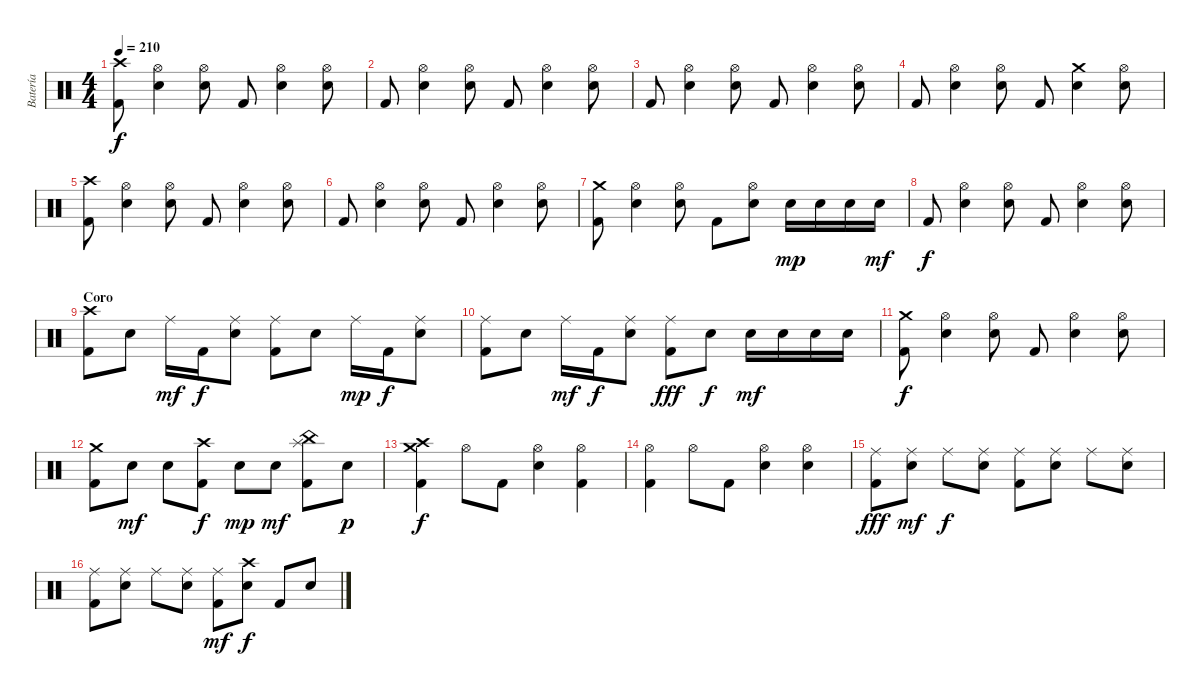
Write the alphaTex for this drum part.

\track ("Batería" "Batería") {instrument percussion}
\staff {score}
\articulation defaults
\ts (4 4)
\tempo 210
\clef neutral
\ks c
("Crash high (hit)" "Kick (hit) 2").8{dy f} ("Hi-Hat (open)" "Electric Snare (hit)").4 ("Hi-Hat (open)" "Electric Snare (hit)").8 "Kick (hit) 2".8 ("Hi-Hat (open)" "Electric Snare (hit)").4 ("Hi-Hat (open)" "Electric Snare (hit)").8 |
"Kick (hit) 2".8 ("Hi-Hat (open)" "Electric Snare (hit)").4 ("Hi-Hat (open)" "Electric Snare (hit)").8 "Kick (hit) 2".8 ("Hi-Hat (open)" "Electric Snare (hit)").4 ("Hi-Hat (open)" "Electric Snare (hit)").8 |
"Kick (hit) 2".8 ("Hi-Hat (open)" "Electric Snare (hit)").4 ("Hi-Hat (open)" "Electric Snare (hit)").8 "Kick (hit) 2".8 ("Hi-Hat (open)" "Electric Snare (hit)").4 ("Hi-Hat (open)" "Electric Snare (hit)").8 |
"Kick (hit) 2".8 ("Hi-Hat (open)" "Electric Snare (hit)").4 ("Hi-Hat (open)" "Electric Snare (hit)").8 "Kick (hit) 2".8 ("Crash medium (hit)" "Electric Snare (hit)").4 ("Hi-Hat (open)" "Electric Snare (hit)").8 |
("Crash high (hit)" "Kick (hit) 2").8 ("Hi-Hat (open)" "Electric Snare (hit)").4 ("Hi-Hat (open)" "Electric Snare (hit)").8 "Kick (hit) 2".8 ("Hi-Hat (open)" "Electric Snare (hit)").4 ("Hi-Hat (open)" "Electric Snare (hit)").8 |
"Kick (hit) 2".8 ("Hi-Hat (open)" "Electric Snare (hit)").4 ("Hi-Hat (open)" "Electric Snare (hit)").8 "Kick (hit) 2".8 ("Hi-Hat (open)" "Electric Snare (hit)").4 ("Hi-Hat (open)" "Electric Snare (hit)").8 |
("Crash medium (hit)" "Kick (hit) 2").8 ("Hi-Hat (open)" "Electric Snare (hit)").4 ("Hi-Hat (open)" "Electric Snare (hit)").8 "Kick (hit) 2".8 ("Hi-Hat (open)" "Electric Snare (hit)").8 "Electric Snare (hit)".16{dy mp} "Electric Snare (hit)".16 "Electric Snare (hit)".16 "Electric Snare (hit)".16{dy mf} |
"Kick (hit) 2".8{dy f} ("Hi-Hat (open)" "Electric Snare (hit)").4 ("Hi-Hat (open)" "Electric Snare (hit)").8 "Kick (hit) 2".8 ("Hi-Hat (open)" "Electric Snare (hit)").4 ("Hi-Hat (open)" "Electric Snare (hit)").8 |
\section ("" "Coro")
("Crash high (hit)" "Kick (hit) 2").8 "Electric Snare (hit)".8 "Ride (middle)".16{dy mf} "Kick (hit) 2".16{dy f} ("Ride (middle)" "Electric Snare (hit)").8 ("Ride (middle)" "Kick (hit) 2").8 "Electric Snare (hit)".8 "Ride (middle)".16{dy mp} "Kick (hit) 2".16{dy f} ("Ride (middle)" "Electric Snare (hit)").8 |
("Ride (middle)" "Kick (hit) 2").8 "Electric Snare (hit)".8 "Ride (middle)".16{dy mf} "Kick (hit) 2".16{dy f} ("Ride (middle)" "Electric Snare (hit)").8 ("Ride (middle)" "Kick (hit) 2").8{dy fff} "Electric Snare (hit)".8{dy f} "Electric Snare (hit)".16{dy mf} "Electric Snare (hit)".16 "Electric Snare (hit)".16 "Electric Snare (hit)".16 |
("Crash medium (hit)" "Kick (hit) 2").8{dy f} ("Hi-Hat (open)" "Electric Snare (hit)").4 ("Hi-Hat (open)" "Electric Snare (hit)").8 "Kick (hit) 2".8 ("Hi-Hat (open)" "Electric Snare (hit)").4 ("Hi-Hat (open)" "Electric Snare (hit)").8 |
("Crash medium (hit)" "Kick (hit) 2").8 "Electric Snare (hit)".8{dy mf} "Electric Snare (hit)".8 ("Crash high (hit)" "Kick (hit) 2").8{dy f} "Electric Snare (hit)".8{dy mp} "Electric Snare (hit)".8{dy mf} ("Splash (hit)" "China (hit)" "Kick (hit) 2").8 "Electric Snare (hit)".8{dy p} |
("Crash medium (hit)" "Crash high (hit)" "Kick (hit) 2").4{dy f} "Hi-Hat (open)".8 "Kick (hit) 2".8 ("Hi-Hat (open)" "Electric Snare (hit)").4 ("Hi-Hat (open)" "Kick (hit) 2").4 |
("Hi-Hat (open)" "Kick (hit) 2").4 "Hi-Hat (open)".8 "Kick (hit) 2".8 ("Hi-Hat (open)" "Electric Snare (hit)").4 ("Hi-Hat (open)" "Electric Snare (hit)").4 |
("Ride (middle)" "Kick (hit) 2").8{dy fff} ("Ride (middle)" "Electric Snare (hit)").8{dy mf} "Ride (middle)".8{dy f} ("Ride (middle)" "Electric Snare (hit)").8 ("Ride (middle)" "Kick (hit) 2").8 ("Ride (middle)" "Electric Snare (hit)").8 "Ride (middle)".8 ("Ride (middle)" "Electric Snare (hit)").8 |
("Ride (middle)" "Kick (hit) 2").8 ("Ride (middle)" "Electric Snare (hit)").8 "Ride (middle)".8 ("Ride (middle)" "Electric Snare (hit)").8 ("Ride (middle)" "Kick (hit) 2").8{dy mf} ("Crash high (hit)" "Electric Snare (hit)").8{dy f} "Kick (hit) 2".8 "Electric Snare (hit)".8
